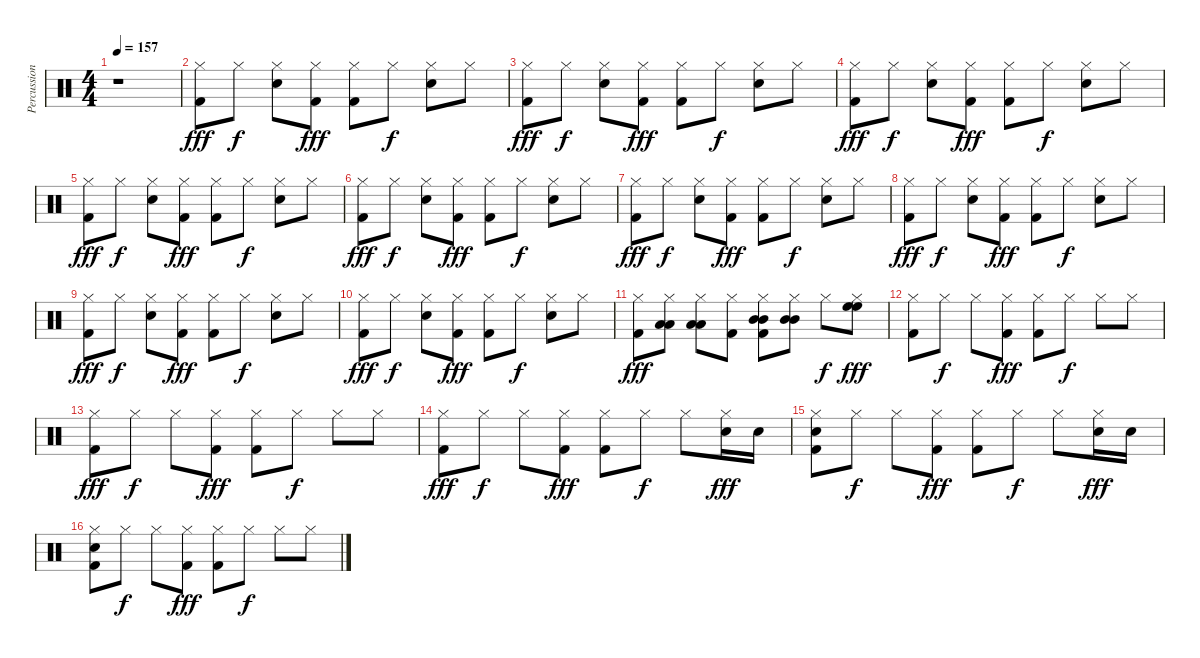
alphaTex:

\track ("Percussioni" "Percussion") {instrument percussion}
\staff {score}
\articulation defaults
\ts (4 4)
\tempo 157
\clef neutral
\ks c
r.1{dy fff} |
("Hi-Hat (closed)" "Kick (hit) 2").8 "Hi-Hat (closed)".8{dy f} ("Hi-Hat (closed)" "Snare (hit) 2").8 ("Hi-Hat (closed)" "Kick (hit) 2").8{dy fff} ("Hi-Hat (closed)" "Kick (hit) 2").8 "Hi-Hat (closed)".8{dy f} ("Hi-Hat (closed)" "Snare (hit) 2").8 "Hi-Hat (closed)".8 |
("Hi-Hat (closed)" "Kick (hit) 2").8{dy fff} "Hi-Hat (closed)".8{dy f} ("Hi-Hat (closed)" "Snare (hit) 2").8 ("Hi-Hat (closed)" "Kick (hit) 2").8{dy fff} ("Hi-Hat (closed)" "Kick (hit) 2").8 "Hi-Hat (closed)".8{dy f} ("Hi-Hat (closed)" "Snare (hit) 2").8 "Hi-Hat (closed)".8 |
("Hi-Hat (closed)" "Kick (hit) 2").8{dy fff} "Hi-Hat (closed)".8{dy f} ("Hi-Hat (closed)" "Snare (hit) 2").8 ("Hi-Hat (closed)" "Kick (hit) 2").8{dy fff} ("Hi-Hat (closed)" "Kick (hit) 2").8 "Hi-Hat (closed)".8{dy f} ("Hi-Hat (closed)" "Snare (hit) 2").8 "Hi-Hat (closed)".8 |
("Hi-Hat (closed)" "Kick (hit) 2").8{dy fff} "Hi-Hat (closed)".8{dy f} ("Hi-Hat (closed)" "Snare (hit) 2").8 ("Hi-Hat (closed)" "Kick (hit) 2").8{dy fff} ("Hi-Hat (closed)" "Kick (hit) 2").8 "Hi-Hat (closed)".8{dy f} ("Hi-Hat (closed)" "Snare (hit) 2").8 "Hi-Hat (closed)".8 |
("Hi-Hat (closed)" "Kick (hit) 2").8{dy fff} "Hi-Hat (closed)".8{dy f} ("Hi-Hat (closed)" "Snare (hit) 2").8 ("Hi-Hat (closed)" "Kick (hit) 2").8{dy fff} ("Hi-Hat (closed)" "Kick (hit) 2").8 "Hi-Hat (closed)".8{dy f} ("Hi-Hat (closed)" "Snare (hit) 2").8 "Hi-Hat (closed)".8 |
("Hi-Hat (closed)" "Kick (hit) 2").8{dy fff} "Hi-Hat (closed)".8{dy f} ("Hi-Hat (closed)" "Snare (hit) 2").8 ("Hi-Hat (closed)" "Kick (hit) 2").8{dy fff} ("Hi-Hat (closed)" "Kick (hit) 2").8 "Hi-Hat (closed)".8{dy f} ("Hi-Hat (closed)" "Snare (hit) 2").8 "Hi-Hat (closed)".8 |
("Hi-Hat (closed)" "Kick (hit) 2").8{dy fff} "Hi-Hat (closed)".8{dy f} ("Hi-Hat (closed)" "Snare (hit) 2").8 ("Hi-Hat (closed)" "Kick (hit) 2").8{dy fff} ("Hi-Hat (closed)" "Kick (hit) 2").8 "Hi-Hat (closed)".8{dy f} ("Hi-Hat (closed)" "Snare (hit) 2").8 "Hi-Hat (closed)".8 |
("Hi-Hat (closed)" "Kick (hit) 2").8{dy fff} "Hi-Hat (closed)".8{dy f} ("Hi-Hat (closed)" "Snare (hit) 2").8 ("Hi-Hat (closed)" "Kick (hit) 2").8{dy fff} ("Hi-Hat (closed)" "Kick (hit) 2").8 "Hi-Hat (closed)".8{dy f} ("Hi-Hat (closed)" "Snare (hit) 2").8 "Hi-Hat (closed)".8 |
("Hi-Hat (closed)" "Kick (hit) 2").8{dy fff} "Hi-Hat (closed)".8{dy f} ("Hi-Hat (closed)" "Snare (hit) 2").8 ("Hi-Hat (closed)" "Kick (hit) 2").8{dy fff} ("Hi-Hat (closed)" "Kick (hit) 2").8 "Hi-Hat (closed)".8{dy f} ("Hi-Hat (closed)" "Snare (hit) 2").8 "Hi-Hat (closed)".8 |
("Hi-Hat (closed)" "Kick (hit) 2").8{dy fff} ("Low Tom (hit)" "Low Tom (hit)" "Hi-Hat (closed)").8 ("Low Tom (hit)" "Low Tom (hit)" "Hi-Hat (closed)").8 ("Hi-Hat (closed)" "Kick (hit) 2").8 ("Mid Tom (hit)" "Mid Tom (hit)" "Hi-Hat (closed)" "Kick (hit) 2").8 ("Mid Tom (hit)" "Mid Tom (hit)" "Hi-Hat (closed)").8 "Hi-Hat (closed)".8{dy f} ("High Floor Tom (hit)" "High Floor Tom (hit)" "Hi-Hat (closed)").8{dy fff} |
("Hi-Hat (closed)" "Kick (hit) 2").8 "Hi-Hat (closed)".8{dy f} "Hi-Hat (closed)".8 ("Hi-Hat (closed)" "Kick (hit) 2").8{dy fff} ("Hi-Hat (closed)" "Kick (hit) 2").8 "Hi-Hat (closed)".8{dy f} "Hi-Hat (closed)".8 "Hi-Hat (closed)".8 |
("Hi-Hat (closed)" "Kick (hit) 2").8{dy fff} "Hi-Hat (closed)".8{dy f} "Hi-Hat (closed)".8 ("Hi-Hat (closed)" "Kick (hit) 2").8{dy fff} ("Hi-Hat (closed)" "Kick (hit) 2").8 "Hi-Hat (closed)".8{dy f} "Hi-Hat (closed)".8 "Hi-Hat (closed)".8 |
("Hi-Hat (closed)" "Kick (hit) 2").8{dy fff} "Hi-Hat (closed)".8{dy f} "Hi-Hat (closed)".8 ("Hi-Hat (closed)" "Kick (hit) 2").8{dy fff} ("Hi-Hat (closed)" "Kick (hit) 2").8 "Hi-Hat (closed)".8{dy f} "Hi-Hat (closed)".8 ("Hi-Hat (closed)" "Snare (hit) 2").16{dy fff} "Snare (hit) 2".16 |
("Hi-Hat (closed)" "Snare (hit) 2" "Kick (hit) 2").8 "Hi-Hat (closed)".8{dy f} "Hi-Hat (closed)".8 ("Hi-Hat (closed)" "Kick (hit) 2").8{dy fff} ("Hi-Hat (closed)" "Kick (hit) 2").8 "Hi-Hat (closed)".8{dy f} "Hi-Hat (closed)".8 ("Hi-Hat (closed)" "Snare (hit) 2").16{dy fff} "Snare (hit) 2".16 |
("Hi-Hat (closed)" "Snare (hit) 2" "Kick (hit) 2").8 "Hi-Hat (closed)".8{dy f} "Hi-Hat (closed)".8 ("Hi-Hat (closed)" "Kick (hit) 2").8{dy fff} ("Hi-Hat (closed)" "Kick (hit) 2").8 "Hi-Hat (closed)".8{dy f} "Hi-Hat (closed)".8 "Hi-Hat (closed)".8
